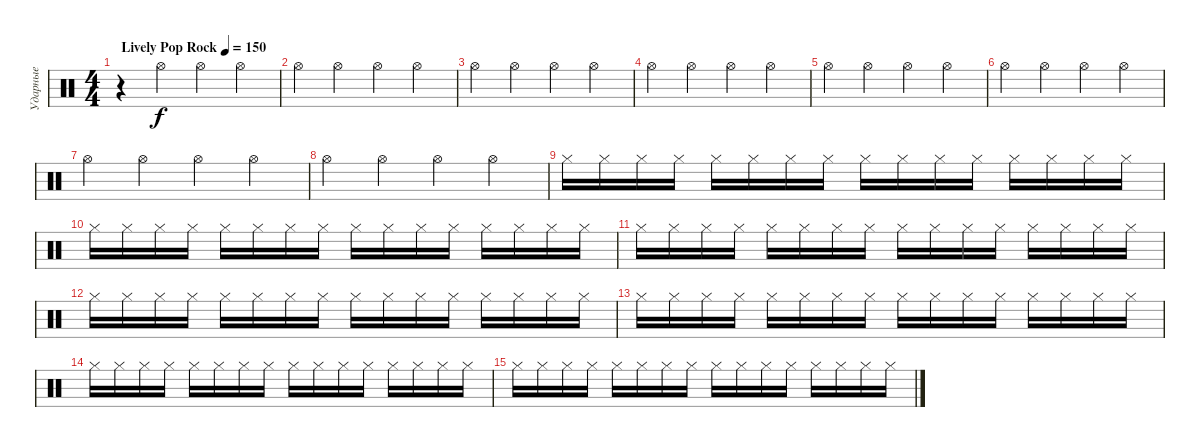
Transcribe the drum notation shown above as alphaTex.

\track ("Ударные" "Ударные") {instrument percussion}
\staff {score}
\articulation defaults
\ts (4 4)
\tempo (150 "Lively Pop Rock")
\clef neutral
\ks c
r.4{dy f} "Hi-Hat (open)".4 "Hi-Hat (open)".4 "Hi-Hat (open)".4 |
"Hi-Hat (open)".4 "Hi-Hat (open)".4 "Hi-Hat (open)".4 "Hi-Hat (open)".4 |
"Hi-Hat (open)".4 "Hi-Hat (open)".4 "Hi-Hat (open)".4 "Hi-Hat (open)".4 |
"Hi-Hat (open)".4 "Hi-Hat (open)".4 "Hi-Hat (open)".4 "Hi-Hat (open)".4 |
"Hi-Hat (open)".4 "Hi-Hat (open)".4 "Hi-Hat (open)".4 "Hi-Hat (open)".4 |
"Hi-Hat (open)".4 "Hi-Hat (open)".4 "Hi-Hat (open)".4 "Hi-Hat (open)".4 |
"Hi-Hat (open)".4 "Hi-Hat (open)".4 "Hi-Hat (open)".4 "Hi-Hat (open)".4 |
"Hi-Hat (open)".4 "Hi-Hat (open)".4 "Hi-Hat (open)".4 "Hi-Hat (open)".4 |
"Hi-Hat (closed)".16 "Hi-Hat (closed)".16 "Hi-Hat (closed)".16 "Hi-Hat (closed)".16 "Hi-Hat (closed)".16 "Hi-Hat (closed)".16 "Hi-Hat (closed)".16 "Hi-Hat (closed)".16 "Hi-Hat (closed)".16 "Hi-Hat (closed)".16 "Hi-Hat (closed)".16 "Hi-Hat (closed)".16 "Hi-Hat (closed)".16 "Hi-Hat (closed)".16 "Hi-Hat (closed)".16 "Hi-Hat (closed)".16 |
"Hi-Hat (closed)".16 "Hi-Hat (closed)".16 "Hi-Hat (closed)".16 "Hi-Hat (closed)".16 "Hi-Hat (closed)".16 "Hi-Hat (closed)".16 "Hi-Hat (closed)".16 "Hi-Hat (closed)".16 "Hi-Hat (closed)".16 "Hi-Hat (closed)".16 "Hi-Hat (closed)".16 "Hi-Hat (closed)".16 "Hi-Hat (closed)".16 "Hi-Hat (closed)".16 "Hi-Hat (closed)".16 "Hi-Hat (closed)".16 |
"Hi-Hat (closed)".16 "Hi-Hat (closed)".16 "Hi-Hat (closed)".16 "Hi-Hat (closed)".16 "Hi-Hat (closed)".16 "Hi-Hat (closed)".16 "Hi-Hat (closed)".16 "Hi-Hat (closed)".16 "Hi-Hat (closed)".16 "Hi-Hat (closed)".16 "Hi-Hat (closed)".16 "Hi-Hat (closed)".16 "Hi-Hat (closed)".16 "Hi-Hat (closed)".16 "Hi-Hat (closed)".16 "Hi-Hat (closed)".16 |
"Hi-Hat (closed)".16 "Hi-Hat (closed)".16 "Hi-Hat (closed)".16 "Hi-Hat (closed)".16 "Hi-Hat (closed)".16 "Hi-Hat (closed)".16 "Hi-Hat (closed)".16 "Hi-Hat (closed)".16 "Hi-Hat (closed)".16 "Hi-Hat (closed)".16 "Hi-Hat (closed)".16 "Hi-Hat (closed)".16 "Hi-Hat (closed)".16 "Hi-Hat (closed)".16 "Hi-Hat (closed)".16 "Hi-Hat (closed)".16 |
"Hi-Hat (closed)".16 "Hi-Hat (closed)".16 "Hi-Hat (closed)".16 "Hi-Hat (closed)".16 "Hi-Hat (closed)".16 "Hi-Hat (closed)".16 "Hi-Hat (closed)".16 "Hi-Hat (closed)".16 "Hi-Hat (closed)".16 "Hi-Hat (closed)".16 "Hi-Hat (closed)".16 "Hi-Hat (closed)".16 "Hi-Hat (closed)".16 "Hi-Hat (closed)".16 "Hi-Hat (closed)".16 "Hi-Hat (closed)".16 |
"Hi-Hat (closed)".16 "Hi-Hat (closed)".16 "Hi-Hat (closed)".16 "Hi-Hat (closed)".16 "Hi-Hat (closed)".16 "Hi-Hat (closed)".16 "Hi-Hat (closed)".16 "Hi-Hat (closed)".16 "Hi-Hat (closed)".16 "Hi-Hat (closed)".16 "Hi-Hat (closed)".16 "Hi-Hat (closed)".16 "Hi-Hat (closed)".16 "Hi-Hat (closed)".16 "Hi-Hat (closed)".16 "Hi-Hat (closed)".16 |
"Hi-Hat (closed)".16 "Hi-Hat (closed)".16 "Hi-Hat (closed)".16 "Hi-Hat (closed)".16 "Hi-Hat (closed)".16 "Hi-Hat (closed)".16 "Hi-Hat (closed)".16 "Hi-Hat (closed)".16 "Hi-Hat (closed)".16 "Hi-Hat (closed)".16 "Hi-Hat (closed)".16 "Hi-Hat (closed)".16 "Hi-Hat (closed)".16 "Hi-Hat (closed)".16 "Hi-Hat (closed)".16 "Hi-Hat (closed)".16
